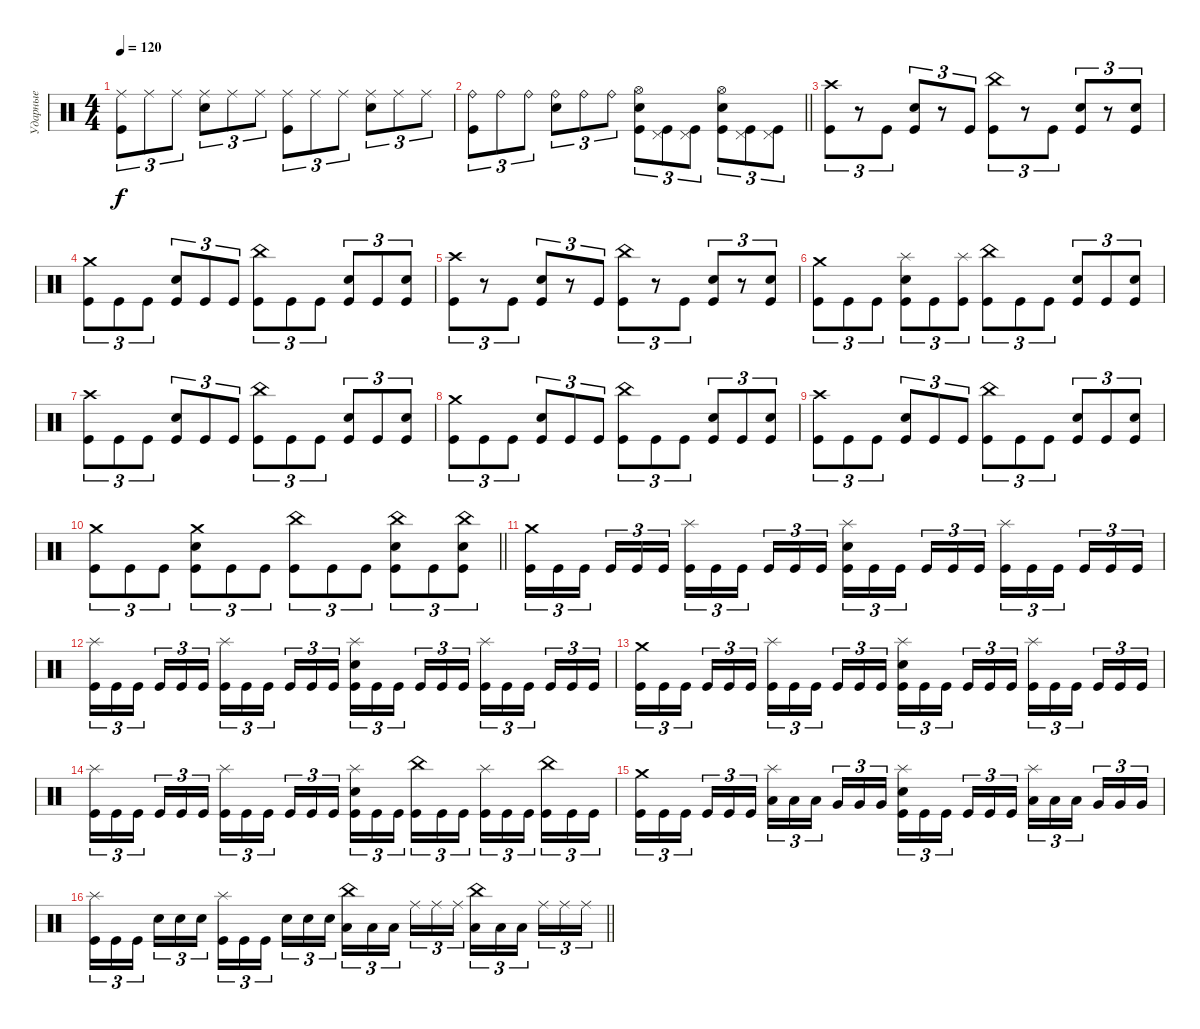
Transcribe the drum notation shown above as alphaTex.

\track ("Ударные" "Ударные") {instrument percussion}
\staff {score}
\articulation defaults
\ts (4 4)
\tempo 120
\clef neutral
\ks c
("Ride (middle)" "Kick (hit)").8{tu (3 2) dy f} "Ride (middle)".8{tu (3 2)} "Ride (middle)".8{tu (3 2)} ("Ride (middle)" "Electric Snare (hit)").8{tu (3 2)} "Ride (middle)".8{tu (3 2)} "Ride (middle)".8{tu (3 2)} ("Ride (middle)" "Kick (hit)").8{tu (3 2)} "Ride (middle)".8{tu (3 2)} "Ride (middle)".8{tu (3 2)} ("Ride (middle)" "Electric Snare (hit)").8{tu (3 2)} "Ride (middle)".8{tu (3 2)} "Ride (middle)".8{tu (3 2)} |
\barLineRight lightlight
("Ride (bell)" "Kick (hit)").8{tu (3 2)} "Ride (bell)".8{tu (3 2)} "Ride (bell)".8{tu (3 2)} ("Ride (bell)" "Electric Snare (hit)").8{tu (3 2)} "Ride (bell)".8{tu (3 2)} "Ride (bell)".8{tu (3 2)} ("Electric Snare (hit)" "Kick (hit)" "Hi-Hat (open)").8{tu (3 2)} ("Kick (hit)" "Pedal Hi-Hat (hit)").8{tu (3 2)} ("Kick (hit)" "Pedal Hi-Hat (hit)").8{tu (3 2)} ("Electric Snare (hit)" "Kick (hit)" "Hi-Hat (open)").8{tu (3 2)} ("Kick (hit)" "Pedal Hi-Hat (hit)").8{tu (3 2)} ("Kick (hit)" "Pedal Hi-Hat (hit)").8{tu (3 2)} |
\section ("" " ")
("Kick (hit)" "Crash high (hit)").8{tu (3 2)} r.8{tu (3 2)} "Kick (hit)".8{tu (3 2)} ("Kick (hit)" "Electric Snare (hit)").8{tu (3 2)} r.8{tu (3 2)} "Kick (hit)".8{tu (3 2)} ("Kick (hit)" "China (hit)").8{tu (3 2)} r.8{tu (3 2)} "Kick (hit)".8{tu (3 2)} ("Kick (hit)" "Electric Snare (hit)").8{tu (3 2)} r.8{tu (3 2)} ("Kick (hit)" "Electric Snare (hit)").8{tu (3 2)} |
("Kick (hit)" "Crash medium (hit)").8{tu (3 2)} "Kick (hit)".8{tu (3 2)} "Kick (hit)".8{tu (3 2)} ("Kick (hit)" "Electric Snare (hit)").8{tu (3 2)} "Kick (hit)".8{tu (3 2)} "Kick (hit)".8{tu (3 2)} ("Kick (hit)" "China (hit)").8{tu (3 2)} "Kick (hit)".8{tu (3 2)} "Kick (hit)".8{tu (3 2)} ("Kick (hit)" "Electric Snare (hit)").8{tu (3 2)} "Kick (hit)".8{tu (3 2)} ("Kick (hit)" "Electric Snare (hit)").8{tu (3 2)} |
("Kick (hit)" "Crash high (hit)").8{tu (3 2)} r.8{tu (3 2)} "Kick (hit)".8{tu (3 2)} ("Kick (hit)" "Electric Snare (hit)").8{tu (3 2)} r.8{tu (3 2)} "Kick (hit)".8{tu (3 2)} ("Kick (hit)" "China (hit)").8{tu (3 2)} r.8{tu (3 2)} "Kick (hit)".8{tu (3 2)} ("Kick (hit)" "Electric Snare (hit)").8{tu (3 2)} r.8{tu (3 2)} ("Kick (hit)" "Electric Snare (hit)").8{tu (3 2)} |
("Kick (hit)" "Crash medium (hit)").8{tu (3 2)} "Kick (hit)".8{tu (3 2)} "Kick (hit)".8{tu (3 2)} ("Kick (hit)" "Electric Snare (hit)" "Splash (hit)").8{tu (3 2)} "Kick (hit)".8{tu (3 2)} ("Kick (hit)" "Splash (hit)").8{tu (3 2)} ("Kick (hit)" "China (hit)").8{tu (3 2)} "Kick (hit)".8{tu (3 2)} "Kick (hit)".8{tu (3 2)} ("Kick (hit)" "Electric Snare (hit)").8{tu (3 2)} "Kick (hit)".8{tu (3 2)} ("Kick (hit)" "Electric Snare (hit)").8{tu (3 2)} |
("Kick (hit)" "Crash high (hit)").8{tu (3 2)} "Kick (hit)".8{tu (3 2)} "Kick (hit)".8{tu (3 2)} ("Kick (hit)" "Electric Snare (hit)").8{tu (3 2)} "Kick (hit)".8{tu (3 2)} "Kick (hit)".8{tu (3 2)} ("Kick (hit)" "China (hit)").8{tu (3 2)} "Kick (hit)".8{tu (3 2)} "Kick (hit)".8{tu (3 2)} ("Kick (hit)" "Electric Snare (hit)").8{tu (3 2)} "Kick (hit)".8{tu (3 2)} ("Kick (hit)" "Electric Snare (hit)").8{tu (3 2)} |
("Kick (hit)" "Crash medium (hit)").8{tu (3 2)} "Kick (hit)".8{tu (3 2)} "Kick (hit)".8{tu (3 2)} ("Kick (hit)" "Electric Snare (hit)").8{tu (3 2)} "Kick (hit)".8{tu (3 2)} "Kick (hit)".8{tu (3 2)} ("Kick (hit)" "China (hit)").8{tu (3 2)} "Kick (hit)".8{tu (3 2)} "Kick (hit)".8{tu (3 2)} ("Kick (hit)" "Electric Snare (hit)").8{tu (3 2)} "Kick (hit)".8{tu (3 2)} ("Kick (hit)" "Electric Snare (hit)").8{tu (3 2)} |
("Kick (hit)" "Crash high (hit)").8{tu (3 2)} "Kick (hit)".8{tu (3 2)} "Kick (hit)".8{tu (3 2)} ("Kick (hit)" "Electric Snare (hit)").8{tu (3 2)} "Kick (hit)".8{tu (3 2)} "Kick (hit)".8{tu (3 2)} ("Kick (hit)" "China (hit)").8{tu (3 2)} "Kick (hit)".8{tu (3 2)} "Kick (hit)".8{tu (3 2)} ("Kick (hit)" "Electric Snare (hit)").8{tu (3 2)} "Kick (hit)".8{tu (3 2)} ("Kick (hit)" "Electric Snare (hit)").8{tu (3 2)} |
\barLineRight lightlight
("Kick (hit)" "Crash medium (hit)").8{tu (3 2)} "Kick (hit)".8{tu (3 2)} "Kick (hit)".8{tu (3 2)} ("Kick (hit)" "Electric Snare (hit)" "Crash medium (hit)").8{tu (3 2)} "Kick (hit)".8{tu (3 2)} "Kick (hit)".8{tu (3 2)} ("Kick (hit)" "China (hit)").8{tu (3 2)} "Kick (hit)".8{tu (3 2)} "Kick (hit)".8{tu (3 2)} ("Kick (hit)" "Electric Snare (hit)" "China (hit)").8{tu (3 2)} "Kick (hit)".8{tu (3 2)} ("Kick (hit)" "Electric Snare (hit)" "China (hit)").8{tu (3 2)} |
\section ("" " ")
("Kick (hit)" "Crash medium (hit)").16{tu (3 2)} "Kick (hit)".16{tu (3 2)} "Kick (hit)".16{tu (3 2) beam splitsecondary} "Kick (hit)".16{tu (3 2)} "Kick (hit)".16{tu (3 2)} "Kick (hit)".16{tu (3 2)} ("Kick (hit)" "Splash (hit)").16{tu (3 2)} "Kick (hit)".16{tu (3 2)} "Kick (hit)".16{tu (3 2) beam splitsecondary} "Kick (hit)".16{tu (3 2)} "Kick (hit)".16{tu (3 2)} "Kick (hit)".16{tu (3 2)} ("Kick (hit)" "Electric Snare (hit)" "Splash (hit)").16{tu (3 2)} "Kick (hit)".16{tu (3 2)} "Kick (hit)".16{tu (3 2) beam splitsecondary} "Kick (hit)".16{tu (3 2)} "Kick (hit)".16{tu (3 2)} "Kick (hit)".16{tu (3 2)} ("Kick (hit)" "Splash (hit)").16{tu (3 2)} "Kick (hit)".16{tu (3 2)} "Kick (hit)".16{tu (3 2) beam splitsecondary} "Kick (hit)".16{tu (3 2)} "Kick (hit)".16{tu (3 2)} "Kick (hit)".16{tu (3 2)} |
("Kick (hit)" "Splash (hit)").16{tu (3 2)} "Kick (hit)".16{tu (3 2)} "Kick (hit)".16{tu (3 2) beam splitsecondary} "Kick (hit)".16{tu (3 2)} "Kick (hit)".16{tu (3 2)} "Kick (hit)".16{tu (3 2)} ("Kick (hit)" "Splash (hit)").16{tu (3 2)} "Kick (hit)".16{tu (3 2)} "Kick (hit)".16{tu (3 2) beam splitsecondary} "Kick (hit)".16{tu (3 2)} "Kick (hit)".16{tu (3 2)} "Kick (hit)".16{tu (3 2)} ("Kick (hit)" "Electric Snare (hit)" "Splash (hit)").16{tu (3 2)} "Kick (hit)".16{tu (3 2)} "Kick (hit)".16{tu (3 2) beam splitsecondary} "Kick (hit)".16{tu (3 2)} "Kick (hit)".16{tu (3 2)} "Kick (hit)".16{tu (3 2)} ("Kick (hit)" "Splash (hit)").16{tu (3 2)} "Kick (hit)".16{tu (3 2)} "Kick (hit)".16{tu (3 2) beam splitsecondary} "Kick (hit)".16{tu (3 2)} "Kick (hit)".16{tu (3 2)} "Kick (hit)".16{tu (3 2)} |
("Kick (hit)" "Crash medium (hit)").16{tu (3 2)} "Kick (hit)".16{tu (3 2)} "Kick (hit)".16{tu (3 2) beam splitsecondary} "Kick (hit)".16{tu (3 2)} "Kick (hit)".16{tu (3 2)} "Kick (hit)".16{tu (3 2)} ("Kick (hit)" "Splash (hit)").16{tu (3 2)} "Kick (hit)".16{tu (3 2)} "Kick (hit)".16{tu (3 2) beam splitsecondary} "Kick (hit)".16{tu (3 2)} "Kick (hit)".16{tu (3 2)} "Kick (hit)".16{tu (3 2)} ("Kick (hit)" "Electric Snare (hit)" "Splash (hit)").16{tu (3 2)} "Kick (hit)".16{tu (3 2)} "Kick (hit)".16{tu (3 2) beam splitsecondary} "Kick (hit)".16{tu (3 2)} "Kick (hit)".16{tu (3 2)} "Kick (hit)".16{tu (3 2)} ("Kick (hit)" "Splash (hit)").16{tu (3 2)} "Kick (hit)".16{tu (3 2)} "Kick (hit)".16{tu (3 2) beam splitsecondary} "Kick (hit)".16{tu (3 2)} "Kick (hit)".16{tu (3 2)} "Kick (hit)".16{tu (3 2)} |
("Kick (hit)" "Splash (hit)").16{tu (3 2)} "Kick (hit)".16{tu (3 2)} "Kick (hit)".16{tu (3 2) beam splitsecondary} "Kick (hit)".16{tu (3 2)} "Kick (hit)".16{tu (3 2)} "Kick (hit)".16{tu (3 2)} ("Kick (hit)" "Splash (hit)").16{tu (3 2)} "Kick (hit)".16{tu (3 2)} "Kick (hit)".16{tu (3 2) beam splitsecondary} "Kick (hit)".16{tu (3 2)} "Kick (hit)".16{tu (3 2)} "Kick (hit)".16{tu (3 2)} ("Kick (hit)" "Electric Snare (hit)" "Splash (hit)").16{tu (3 2)} "Kick (hit)".16{tu (3 2)} "Kick (hit)".16{tu (3 2) beam splitsecondary} ("Kick (hit)" "China (hit)").16{tu (3 2)} "Kick (hit)".16{tu (3 2)} "Kick (hit)".16{tu (3 2)} ("Kick (hit)" "Splash (hit)").16{tu (3 2)} "Kick (hit)".16{tu (3 2)} "Kick (hit)".16{tu (3 2) beam splitsecondary} ("Kick (hit)" "China (hit)").16{tu (3 2)} "Kick (hit)".16{tu (3 2)} "Kick (hit)".16{tu (3 2)} |
("Kick (hit)" "Crash medium (hit)").16{tu (3 2)} "Kick (hit)".16{tu (3 2)} "Kick (hit)".16{tu (3 2) beam splitsecondary} "Kick (hit)".16{tu (3 2)} "Kick (hit)".16{tu (3 2)} "Kick (hit)".16{tu (3 2)} ("Low Tom (hit)" "Splash (hit)").16{tu (3 2)} "Low Tom (hit)".16{tu (3 2)} "Low Tom (hit)".16{tu (3 2) beam splitsecondary} "Very Low Tom (hit)".16{tu (3 2)} "Very Low Tom (hit)".16{tu (3 2)} "Very Low Tom (hit)".16{tu (3 2)} ("Kick (hit)" "Electric Snare (hit)" "Splash (hit)").16{tu (3 2)} "Kick (hit)".16{tu (3 2)} "Kick (hit)".16{tu (3 2) beam splitsecondary} "Kick (hit)".16{tu (3 2)} "Kick (hit)".16{tu (3 2)} "Kick (hit)".16{tu (3 2)} ("Low Tom (hit)" "Splash (hit)").16{tu (3 2)} "Low Tom (hit)".16{tu (3 2)} "Low Tom (hit)".16{tu (3 2) beam splitsecondary} "Very Low Tom (hit)".16{tu (3 2)} "Very Low Tom (hit)".16{tu (3 2)} "Very Low Tom (hit)".16{tu (3 2)} |
\barLineRight lightlight
("Kick (hit)" "Splash (hit)").16{tu (3 2)} "Kick (hit)".16{tu (3 2)} "Kick (hit)".16{tu (3 2) beam splitsecondary} "Electric Snare (hit)".16{tu (3 2)} "Electric Snare (hit)".16{tu (3 2)} "Electric Snare (hit)".16{tu (3 2)} ("Kick (hit)" "Splash (hit)").16{tu (3 2)} "Kick (hit)".16{tu (3 2)} "Kick (hit)".16{tu (3 2) beam splitsecondary} "Electric Snare (hit)".16{tu (3 2)} "Electric Snare (hit)".16{tu (3 2)} "Electric Snare (hit)".16{tu (3 2)} ("China (hit)" "Low Tom (hit)").16{tu (3 2)} "Low Tom (hit)".16{tu (3 2)} "Low Tom (hit)".16{tu (3 2) beam splitsecondary} "Ride (middle)".16{tu (3 2)} "Ride (middle)".16{tu (3 2)} "Ride (middle)".16{tu (3 2)} ("China (hit)" "Low Tom (hit)").16{tu (3 2)} "Low Tom (hit)".16{tu (3 2)} "Low Tom (hit)".16{tu (3 2) beam splitsecondary} "Ride (middle)".16{tu (3 2)} "Ride (middle)".16{tu (3 2)} "Ride (middle)".16{tu (3 2)}
